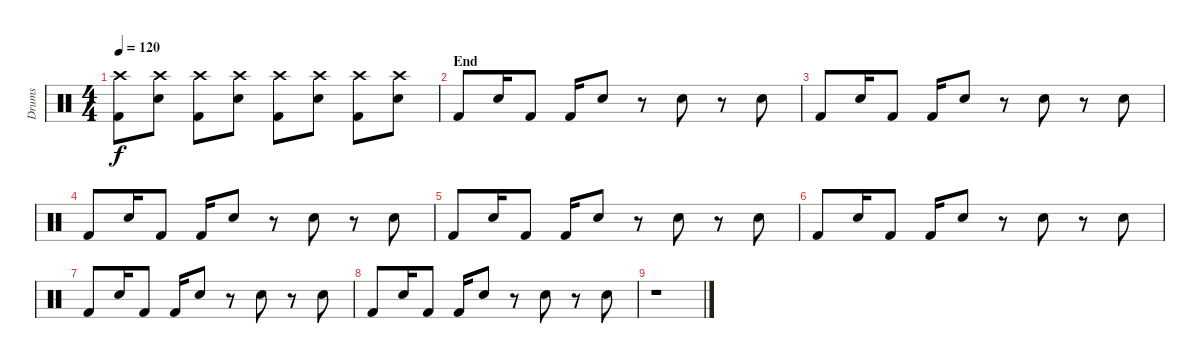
\track ("Drums" "Drums") {instrument percussion}
\staff {score}
\articulation defaults
\ts (4 4)
\tempo 120
\clef neutral
\ks c
("Crash high (hit)" "Kick (hit) 2").8{dy f} ("Crash high (hit)" "Electric Snare (hit)").8 ("Crash high (hit)" "Kick (hit) 2").8 ("Crash high (hit)" "Electric Snare (hit)").8 ("Crash high (hit)" "Kick (hit) 2").8 ("Crash high (hit)" "Electric Snare (hit)").8 ("Crash high (hit)" "Kick (hit) 2").8 ("Crash high (hit)" "Electric Snare (hit)").8 |
\section ("" "End")
"Kick (hit) 2".8 "Electric Snare (hit)".16 "Kick (hit) 2".8 "Kick (hit) 2".16 "Electric Snare (hit)".8 r.8 "Electric Snare (hit)".8 r.8 "Electric Snare (hit)".8 |
"Kick (hit) 2".8 "Electric Snare (hit)".16 "Kick (hit) 2".8 "Kick (hit) 2".16 "Electric Snare (hit)".8 r.8 "Electric Snare (hit)".8 r.8 "Electric Snare (hit)".8 |
"Kick (hit) 2".8 "Electric Snare (hit)".16 "Kick (hit) 2".8 "Kick (hit) 2".16 "Electric Snare (hit)".8 r.8 "Electric Snare (hit)".8 r.8 "Electric Snare (hit)".8 |
"Kick (hit) 2".8 "Electric Snare (hit)".16 "Kick (hit) 2".8 "Kick (hit) 2".16 "Electric Snare (hit)".8 r.8 "Electric Snare (hit)".8 r.8 "Electric Snare (hit)".8 |
"Kick (hit) 2".8 "Electric Snare (hit)".16 "Kick (hit) 2".8 "Kick (hit) 2".16 "Electric Snare (hit)".8 r.8 "Electric Snare (hit)".8 r.8 "Electric Snare (hit)".8 |
"Kick (hit) 2".8 "Electric Snare (hit)".16 "Kick (hit) 2".8 "Kick (hit) 2".16 "Electric Snare (hit)".8 r.8 "Electric Snare (hit)".8 r.8 "Electric Snare (hit)".8 |
"Kick (hit) 2".8 "Electric Snare (hit)".16 "Kick (hit) 2".8 "Kick (hit) 2".16 "Electric Snare (hit)".8 r.8 "Electric Snare (hit)".8 r.8 "Electric Snare (hit)".8 |
r.1
